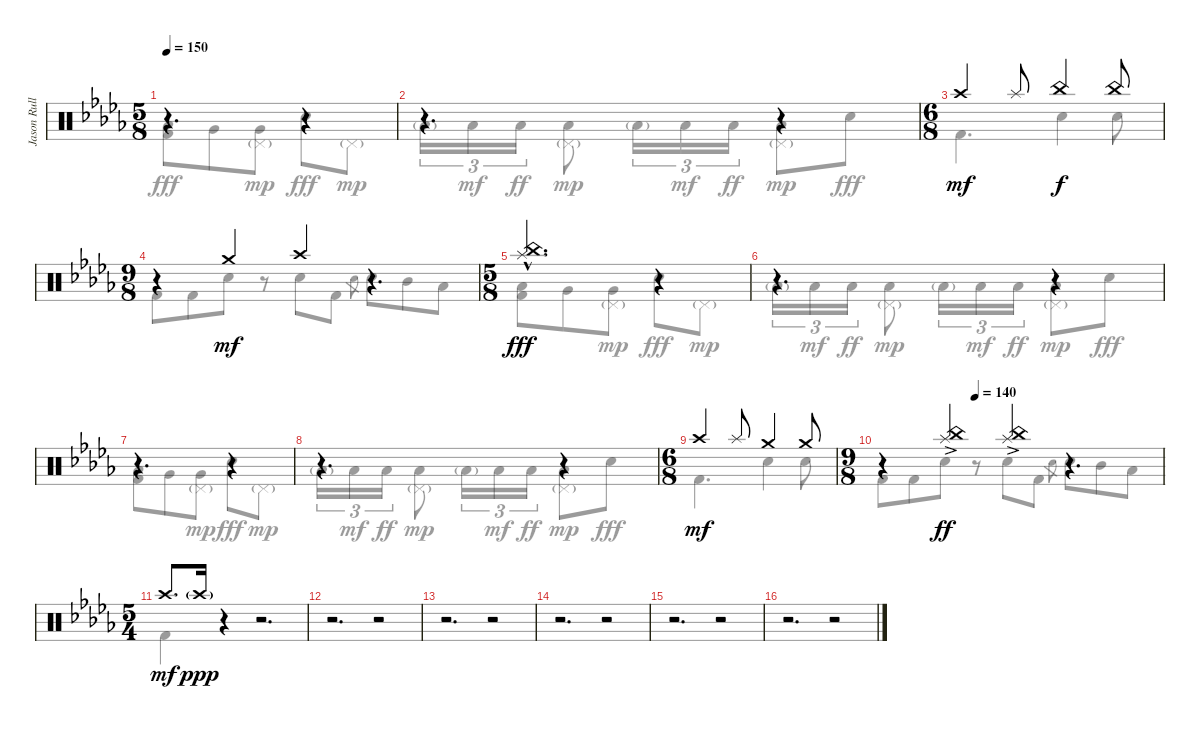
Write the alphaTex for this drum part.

\track ("Jason Rullo Drums" "Jason Rull") {instrument percussion}
\staff {score}
\articulation defaults
\voice
\ts (5 8)
\tempo 150
\clef neutral
\ks bbminor
r.4{d dy fff} r.4 |
r.4{d} r.4 |
\ts (6 8)
"Crash high (hit)".4{dy mf} "Splash (hit)".8 "China (hit)".4{dy f} "China (hit)".8 |
\ts (9 8)
r.4 "Crash medium (hit)".4{dy mf} "Crash high (hit)".4 r.4{d} |
\ts (5 8)
("China (hit)"{hac} "Splash (hit)").4{d dy fff} r.4 |
r.4{d} r.4 |
r.4{d} r.4 |
r.4{d} r.4 |
\ts (6 8)
"Crash high (hit)".4{dy mf} "Splash (hit)".8 "Crash medium (hit)".4 "Crash medium (hit)".8 |
\ts (9 8)
\tempo (140 0.3333333333333333)
r.4 ("China (hit)"{ac} "Splash (hit)").4{dy ff} ("China (hit)"{ac} "Splash (hit)").4 r.4{d} |
\ts (5 4)
"Crash high (hit)".8{d dy mf} "Crash high (hit)"{g}.16{dy ppp} r.4 r.2{d} |
r.2{d} r.2 |
r.2{d} r.2 |
r.2{d} r.2 |
r.2{d} r.2 |
r.2{d} r.2
\voice
\clef neutral
\ottava regular
\simile none
\ks bbminor
("Low Tom (hit)" "Kick (hit) 2").8{dy fff} "Very Low Tom (hit)".8 ("Very Low Tom (hit)" "Pedal Hi-Hat (hit)"{g}).8{dy mp} "Electric Snare (hit)".8{dy fff} "Pedal Hi-Hat (hit)"{g}.8{dy mp} |
"Low Tom (hit)"{g}.16{tu (3 2)} "Low Tom (hit)".16{tu (3 2) dy mf} "Low Tom (hit)".16{tu (3 2) dy ff} ("Low Tom (hit)" "Pedal Hi-Hat (hit)"{g}).8{dy mp} "Low Tom (hit)"{g}.16{tu (3 2)} "Low Tom (hit)".16{tu (3 2) dy mf} "Low Tom (hit)".16{tu (3 2) dy ff} ("Low Tom (hit)" "Pedal Hi-Hat (hit)"{g}).8{dy mp} "Electric Snare (hit)".8{dy fff} |
"Kick (hit) 2".4{d} "Electric Snare (hit)".4 "Electric Snare (hit)".8 |
"Kick (hit) 2".8 "Kick (hit) 2".8 "Electric Snare (hit)".8 r.8 "Electric Snare (hit)".8 "Kick (hit) 2".8 "Electric Snare (hit)".8{gr} "Electric Snare (hit)".8 "Mid Tom (hit)".8 "Low Tom (hit)".8 |
("Low Tom (hit)" "Kick (hit) 2").8 "Very Low Tom (hit)".8 ("Very Low Tom (hit)" "Pedal Hi-Hat (hit)"{g}).8{dy mp} "Electric Snare (hit)".8{dy fff} "Pedal Hi-Hat (hit)"{g}.8{dy mp} |
"Low Tom (hit)"{g}.16{tu (3 2)} "Low Tom (hit)".16{tu (3 2) dy mf} "Low Tom (hit)".16{tu (3 2) dy ff} ("Low Tom (hit)" "Pedal Hi-Hat (hit)"{g}).8{dy mp} "Low Tom (hit)"{g}.16{tu (3 2)} "Low Tom (hit)".16{tu (3 2) dy mf} "Low Tom (hit)".16{tu (3 2) dy ff} ("Low Tom (hit)" "Pedal Hi-Hat (hit)"{g}).8{dy mp} "Electric Snare (hit)".8{dy fff} |
("Low Tom (hit)" "Kick (hit) 2").8 "Very Low Tom (hit)".8 ("Very Low Tom (hit)" "Pedal Hi-Hat (hit)"{g}).8{dy mp} "Electric Snare (hit)".8{dy fff} "Pedal Hi-Hat (hit)"{g}.8{dy mp} |
"Low Tom (hit)"{g}.16{tu (3 2)} "Low Tom (hit)".16{tu (3 2) dy mf} "Low Tom (hit)".16{tu (3 2) dy ff} ("Low Tom (hit)" "Pedal Hi-Hat (hit)"{g}).8{dy mp} "Low Tom (hit)"{g}.16{tu (3 2)} "Low Tom (hit)".16{tu (3 2) dy mf} "Low Tom (hit)".16{tu (3 2) dy ff} ("Low Tom (hit)" "Pedal Hi-Hat (hit)"{g}).8{dy mp} "Electric Snare (hit)".8{dy fff} |
"Kick (hit) 2".4{d} "Electric Snare (hit)".4 "Electric Snare (hit)".8 |
"Kick (hit) 2".8 "Kick (hit) 2".8 "Electric Snare (hit)".8 r.8 "Electric Snare (hit)".8 "Kick (hit) 2".8 "Electric Snare (hit)".8{gr} "Electric Snare (hit)".8 "Mid Tom (hit)".8 "Low Tom (hit)".8 |
"Kick (hit) 2".4 r.4 r.2{d} |
r.2{d} r.2 |
r.2{d} r.2 |
r.2{d} r.2 |
r.2{d} r.2 |
r.2{d} r.2
